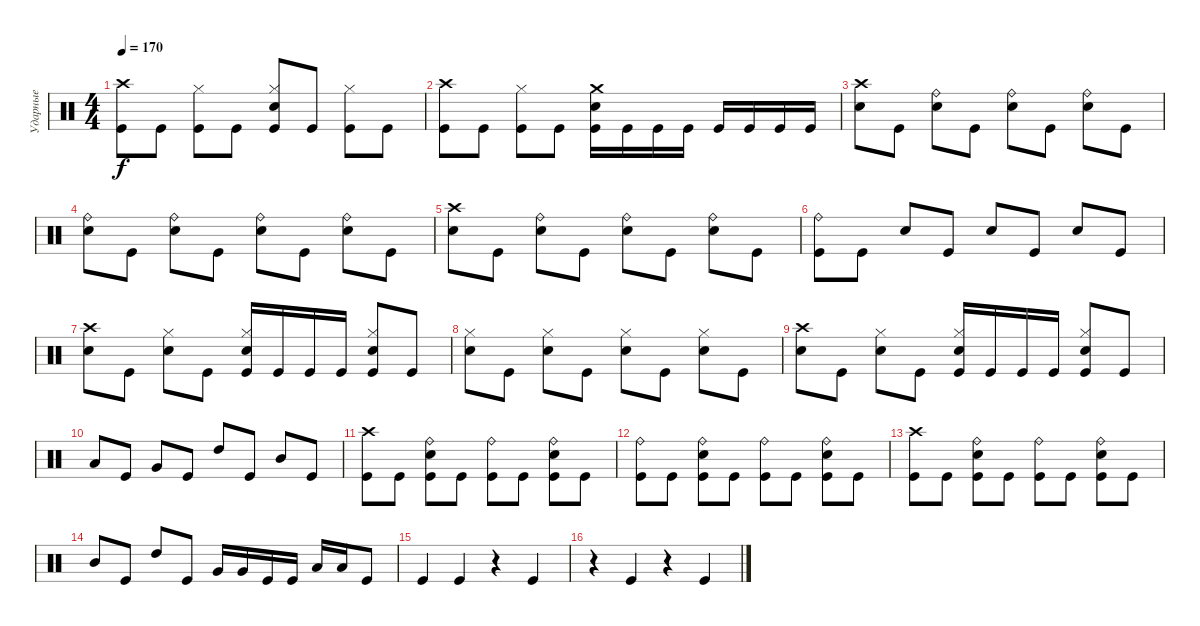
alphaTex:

\track ("Ударные" "Ударные") {instrument percussion}
\staff {score}
\articulation defaults
\ts (4 4)
\tempo 170
\clef neutral
\ks c
("Crash high (hit)" "Kick (hit)").8{dy f} "Kick (hit)".8 ("Hi-Hat (closed)" "Kick (hit)").8 "Kick (hit)".8 ("Hi-Hat (closed)" "Electric Snare (hit)" "Kick (hit)").8 "Kick (hit)".8 ("Hi-Hat (closed)" "Kick (hit)").8 "Kick (hit)".8 |
("Crash high (hit)" "Kick (hit)").8 "Kick (hit)".8 ("Hi-Hat (closed)" "Kick (hit)").8 "Kick (hit)".8 ("Crash medium (hit)" "Electric Snare (hit)" "Kick (hit)").16 "Kick (hit)".16 "Kick (hit)".16 "Kick (hit)".16 "Kick (hit)".16 "Kick (hit)".16 "Kick (hit)".16 "Kick (hit)".16 |
("Crash high (hit)" "Electric Snare (hit)").8 "Kick (hit)".8 ("Ride (bell)" "Electric Snare (hit)").8 "Kick (hit)".8 ("Ride (bell)" "Electric Snare (hit)").8 "Kick (hit)".8 ("Ride (bell)" "Electric Snare (hit)").8 "Kick (hit)".8 |
("Ride (bell)" "Electric Snare (hit)").8 "Kick (hit)".8 ("Ride (bell)" "Electric Snare (hit)").8 "Kick (hit)".8 ("Ride (bell)" "Electric Snare (hit)").8 "Kick (hit)".8 ("Ride (bell)" "Electric Snare (hit)").8 "Kick (hit)".8 |
("Crash high (hit)" "Electric Snare (hit)").8 "Kick (hit)".8 ("Ride (bell)" "Electric Snare (hit)").8 "Kick (hit)".8 ("Ride (bell)" "Electric Snare (hit)").8 "Kick (hit)".8 ("Ride (bell)" "Electric Snare (hit)").8 "Kick (hit)".8 |
("Ride (bell)" "Kick (hit)").8 "Kick (hit)".8 "Electric Snare (hit)".8 "Kick (hit)".8 "Electric Snare (hit)".8 "Kick (hit)".8 "Electric Snare (hit)".8 "Kick (hit)".8 |
("Crash high (hit)" "Electric Snare (hit)").8 "Kick (hit)".8 ("Hi-Hat (closed)" "Electric Snare (hit)").8 "Kick (hit)".8 ("Hi-Hat (closed)" "Electric Snare (hit)" "Kick (hit)").16 "Kick (hit)".16 "Kick (hit)".16 "Kick (hit)".16 ("Hi-Hat (closed)" "Electric Snare (hit)" "Kick (hit)").8 "Kick (hit)".8 |
("Hi-Hat (closed)" "Electric Snare (hit)").8 "Kick (hit)".8 ("Hi-Hat (closed)" "Electric Snare (hit)").8 "Kick (hit)".8 ("Hi-Hat (closed)" "Electric Snare (hit)").8 "Kick (hit)".8 ("Hi-Hat (closed)" "Electric Snare (hit)").8 "Kick (hit)".8 |
("Crash high (hit)" "Electric Snare (hit)").8 "Kick (hit)".8 ("Hi-Hat (closed)" "Electric Snare (hit)").8 "Kick (hit)".8 ("Hi-Hat (closed)" "Electric Snare (hit)" "Kick (hit)").16 "Kick (hit)".16 "Kick (hit)".16 "Kick (hit)".16 ("Hi-Hat (closed)" "Electric Snare (hit)" "Kick (hit)").8 "Kick (hit)".8 |
"Low Tom (hit)".8 "Kick (hit)".8 "Very Low Tom (hit)".8 "Kick (hit)".8 "High Tom (hit)".8 "Kick (hit)".8 "Mid Tom (hit)".8 "Kick (hit)".8 |
("Crash high (hit)" "Kick (hit)").8 "Kick (hit)".8 ("Ride (bell)" "Electric Snare (hit)" "Kick (hit)").8 "Kick (hit)".8 ("Ride (bell)" "Kick (hit)").8 "Kick (hit)".8 ("Ride (bell)" "Electric Snare (hit)" "Kick (hit)").8 "Kick (hit)".8 |
("Ride (bell)" "Kick (hit)").8 "Kick (hit)".8 ("Ride (bell)" "Electric Snare (hit)" "Kick (hit)").8 "Kick (hit)".8 ("Ride (bell)" "Kick (hit)").8 "Kick (hit)".8 ("Ride (bell)" "Electric Snare (hit)" "Kick (hit)").8 "Kick (hit)".8 |
("Crash high (hit)" "Kick (hit)").8 "Kick (hit)".8 ("Ride (bell)" "Electric Snare (hit)" "Kick (hit)").8 "Kick (hit)".8 ("Ride (bell)" "Kick (hit)").8 "Kick (hit)".8 ("Ride (bell)" "Electric Snare (hit)" "Kick (hit)").8 "Kick (hit)".8 |
"Mid Tom (hit)".8 "Kick (hit)".8 "High Tom (hit)".8 "Kick (hit)".8 "Very Low Tom (hit)".16 "Very Low Tom (hit)".16 "Kick (hit)".16 "Kick (hit)".16 "Low Tom (hit)".16 "Low Tom (hit)".16 "Kick (hit)".8 |
"Kick (hit)".4 "Kick (hit)".4 r.4 "Kick (hit)".4 |
r.4 "Kick (hit)".4 r.4 "Kick (hit)".4
